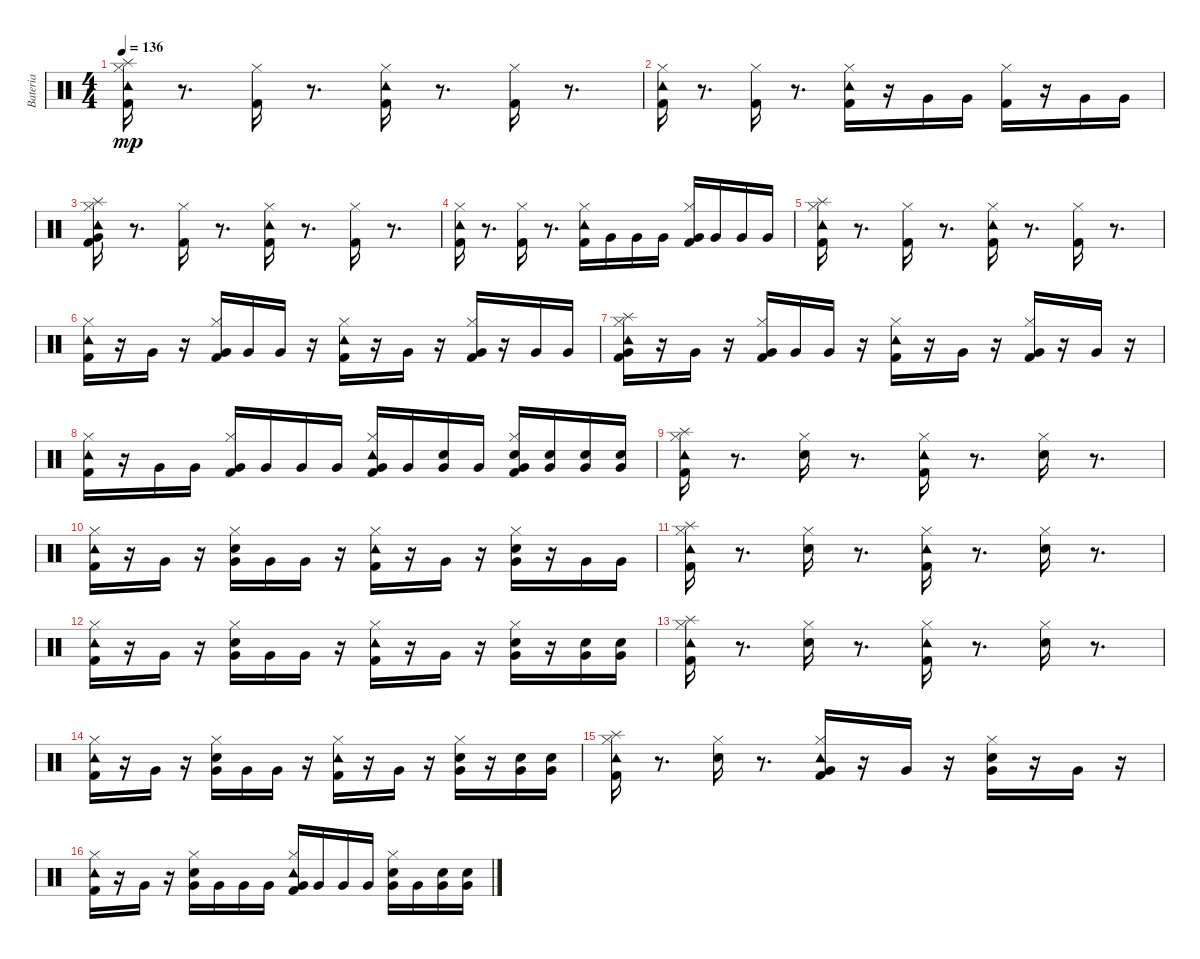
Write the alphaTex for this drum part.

\track ("Bateria" "Bateria") {instrument percussion}
\staff {score}
\articulation defaults
\ts (4 4)
\tempo 136
\clef neutral
\ks c
("Splash (hit)" "Kick (hit) 2" "Tambourine (hit)" "Hi-Hat (closed)").16{dy mp} r.8{d} ("Kick (hit) 2" "Hi-Hat (closed)").16 r.8{d} ("Hi-Hat (closed)" "Tambourine (hit)" "Kick (hit) 2").16 r.8{d} ("Kick (hit) 2" "Hi-Hat (closed)").16 r.8{d} |
("Hi-Hat (closed)" "Tambourine (hit)" "Kick (hit) 2").16 r.8{d} ("Kick (hit) 2" "Hi-Hat (closed)").16 r.8{d} ("Hi-Hat (closed)" "Tambourine (hit)" "Kick (hit) 2").16 r.16 "Very Low Tom (hit)".16 "Very Low Tom (hit)".16 ("Kick (hit) 2" "Hi-Hat (closed)").16 r.16 "Very Low Tom (hit)".16 "Very Low Tom (hit)".16 |
("Splash (hit)" "Tambourine (hit)" "Hi-Hat (closed)" "Kick (hit) 2" "Very Low Tom (hit)").16 r.8{d} ("Kick (hit) 2" "Hi-Hat (closed)").16 r.8{d} ("Hi-Hat (closed)" "Tambourine (hit)" "Kick (hit) 2").16 r.8{d} ("Kick (hit) 2" "Hi-Hat (closed)").16 r.8{d} |
("Hi-Hat (closed)" "Tambourine (hit)" "Kick (hit) 2").16 r.8{d} ("Kick (hit) 2" "Hi-Hat (closed)").16 r.8{d} ("Hi-Hat (closed)" "Tambourine (hit)" "Kick (hit) 2").16 "Very Low Tom (hit)".16 "Very Low Tom (hit)".16 "Very Low Tom (hit)".16 ("Very Low Tom (hit)" "Kick (hit) 2" "Hi-Hat (closed)").16 "Very Low Tom (hit)".16 "Very Low Tom (hit)".16 "Very Low Tom (hit)".16 |
("Splash (hit)" "Kick (hit) 2" "Tambourine (hit)" "Hi-Hat (closed)").16 r.8{d} ("Kick (hit) 2" "Hi-Hat (closed)").16 r.8{d} ("Hi-Hat (closed)" "Tambourine (hit)" "Kick (hit) 2").16 r.8{d} ("Kick (hit) 2" "Hi-Hat (closed)").16 r.8{d} |
("Hi-Hat (closed)" "Tambourine (hit)" "Kick (hit) 2").16 r.16 "Very Low Tom (hit)".16 r.16 ("Kick (hit) 2" "Hi-Hat (closed)" "Very Low Tom (hit)").16 "Very Low Tom (hit)".16 "Very Low Tom (hit)".16 r.16 ("Hi-Hat (closed)" "Tambourine (hit)" "Kick (hit) 2").16 r.16 "Very Low Tom (hit)".16 r.16 ("Kick (hit) 2" "Hi-Hat (closed)" "Very Low Tom (hit)").16 r.16 "Very Low Tom (hit)".16 "Very Low Tom (hit)".16 |
("Splash (hit)" "Tambourine (hit)" "Hi-Hat (closed)" "Kick (hit) 2" "Very Low Tom (hit)").16 r.16 "Very Low Tom (hit)".16 r.16 ("Kick (hit) 2" "Hi-Hat (closed)" "Very Low Tom (hit)").16 "Very Low Tom (hit)".16 "Very Low Tom (hit)".16 r.16 ("Hi-Hat (closed)" "Tambourine (hit)" "Kick (hit) 2").16 r.16 "Very Low Tom (hit)".16 r.16 ("Kick (hit) 2" "Hi-Hat (closed)" "Very Low Tom (hit)").16 r.16 "Very Low Tom (hit)".16 r.16 |
("Hi-Hat (closed)" "Tambourine (hit)" "Kick (hit) 2").16 r.16 "Very Low Tom (hit)".16 "Very Low Tom (hit)".16 ("Kick (hit) 2" "Hi-Hat (closed)" "Very Low Tom (hit)").16 "Very Low Tom (hit)".16 "Very Low Tom (hit)".16 "Very Low Tom (hit)".16 ("Hi-Hat (closed)" "Tambourine (hit)" "Kick (hit) 2" "Very Low Tom (hit)").16 "Very Low Tom (hit)".16 ("Very Low Tom (hit)" "Snare (hit) 2").16 "Very Low Tom (hit)".16 ("Very Low Tom (hit)" "Kick (hit) 2" "Hi-Hat (closed)" "Snare (hit) 2").16 ("Very Low Tom (hit)" "Snare (hit) 2").16 ("Very Low Tom (hit)" "Snare (hit) 2").16 ("Very Low Tom (hit)" "Snare (hit) 2").16 |
("Splash (hit)" "Kick (hit) 2" "Tambourine (hit)" "Hi-Hat (closed)").16 r.8{d} ("Hi-Hat (closed)" "Snare (hit) 2").16 r.8{d} ("Hi-Hat (closed)" "Tambourine (hit)" "Kick (hit) 2").16 r.8{d} ("Hi-Hat (closed)" "Snare (hit) 2").16 r.8{d} |
("Hi-Hat (closed)" "Tambourine (hit)" "Kick (hit) 2").16 r.16 "Very Low Tom (hit)".16 r.16 ("Hi-Hat (closed)" "Snare (hit) 2" "Very Low Tom (hit)").16 "Very Low Tom (hit)".16 "Very Low Tom (hit)".16 r.16 ("Hi-Hat (closed)" "Tambourine (hit)" "Kick (hit) 2").16 r.16 "Very Low Tom (hit)".16 r.16 ("Hi-Hat (closed)" "Snare (hit) 2" "Very Low Tom (hit)").16 r.16 "Very Low Tom (hit)".16 "Very Low Tom (hit)".16 |
("Splash (hit)" "Tambourine (hit)" "Hi-Hat (closed)" "Kick (hit) 2").16 r.8{d} ("Hi-Hat (closed)" "Snare (hit) 2").16 r.8{d} ("Hi-Hat (closed)" "Tambourine (hit)" "Kick (hit) 2").16 r.8{d} ("Hi-Hat (closed)" "Snare (hit) 2").16 r.8{d} |
("Hi-Hat (closed)" "Tambourine (hit)" "Kick (hit) 2").16 r.16 "Very Low Tom (hit)".16 r.16 ("Hi-Hat (closed)" "Snare (hit) 2" "Very Low Tom (hit)").16 "Very Low Tom (hit)".16 "Very Low Tom (hit)".16 r.16 ("Hi-Hat (closed)" "Tambourine (hit)" "Kick (hit) 2").16 r.16 "Very Low Tom (hit)".16 r.16 ("Very Low Tom (hit)" "Hi-Hat (closed)" "Snare (hit) 2").16 r.16 ("Very Low Tom (hit)" "Snare (hit) 2").16 ("Very Low Tom (hit)" "Snare (hit) 2").16 |
("Splash (hit)" "Kick (hit) 2" "Tambourine (hit)" "Hi-Hat (closed)").16 r.8{d} ("Hi-Hat (closed)" "Snare (hit) 2").16 r.8{d} ("Hi-Hat (closed)" "Tambourine (hit)" "Kick (hit) 2").16 r.8{d} ("Hi-Hat (closed)" "Snare (hit) 2").16 r.8{d} |
("Hi-Hat (closed)" "Tambourine (hit)" "Kick (hit) 2").16 r.16 "Very Low Tom (hit)".16 r.16 ("Hi-Hat (closed)" "Snare (hit) 2" "Very Low Tom (hit)").16 "Very Low Tom (hit)".16 "Very Low Tom (hit)".16 r.16 ("Hi-Hat (closed)" "Tambourine (hit)" "Kick (hit) 2").16 r.16 "Very Low Tom (hit)".16 r.16 ("Hi-Hat (closed)" "Snare (hit) 2" "Very Low Tom (hit)").16 r.16 ("Very Low Tom (hit)" "Snare (hit) 2").16 ("Very Low Tom (hit)" "Snare (hit) 2").16 |
("Splash (hit)" "Tambourine (hit)" "Hi-Hat (closed)" "Kick (hit) 2").16 r.8{d} ("Hi-Hat (closed)" "Snare (hit) 2").16 r.8{d} ("Hi-Hat (closed)" "Tambourine (hit)" "Kick (hit) 2" "Very Low Tom (hit)").16 r.16 "Very Low Tom (hit)".16 r.16 ("Hi-Hat (closed)" "Snare (hit) 2" "Very Low Tom (hit)").16 r.16 "Very Low Tom (hit)".16 r.16 |
("Hi-Hat (closed)" "Tambourine (hit)" "Kick (hit) 2").16 r.16 "Very Low Tom (hit)".16 r.16 ("Hi-Hat (closed)" "Snare (hit) 2" "Very Low Tom (hit)").16 "Very Low Tom (hit)".16 "Very Low Tom (hit)".16 "Very Low Tom (hit)".16 ("Hi-Hat (closed)" "Tambourine (hit)" "Kick (hit) 2" "Very Low Tom (hit)").16 "Very Low Tom (hit)".16 "Very Low Tom (hit)".16 "Very Low Tom (hit)".16 ("Very Low Tom (hit)" "Hi-Hat (closed)" "Snare (hit) 2").16 "Very Low Tom (hit)".16 ("Very Low Tom (hit)" "Snare (hit) 2").16 ("Very Low Tom (hit)" "Snare (hit) 2").16
